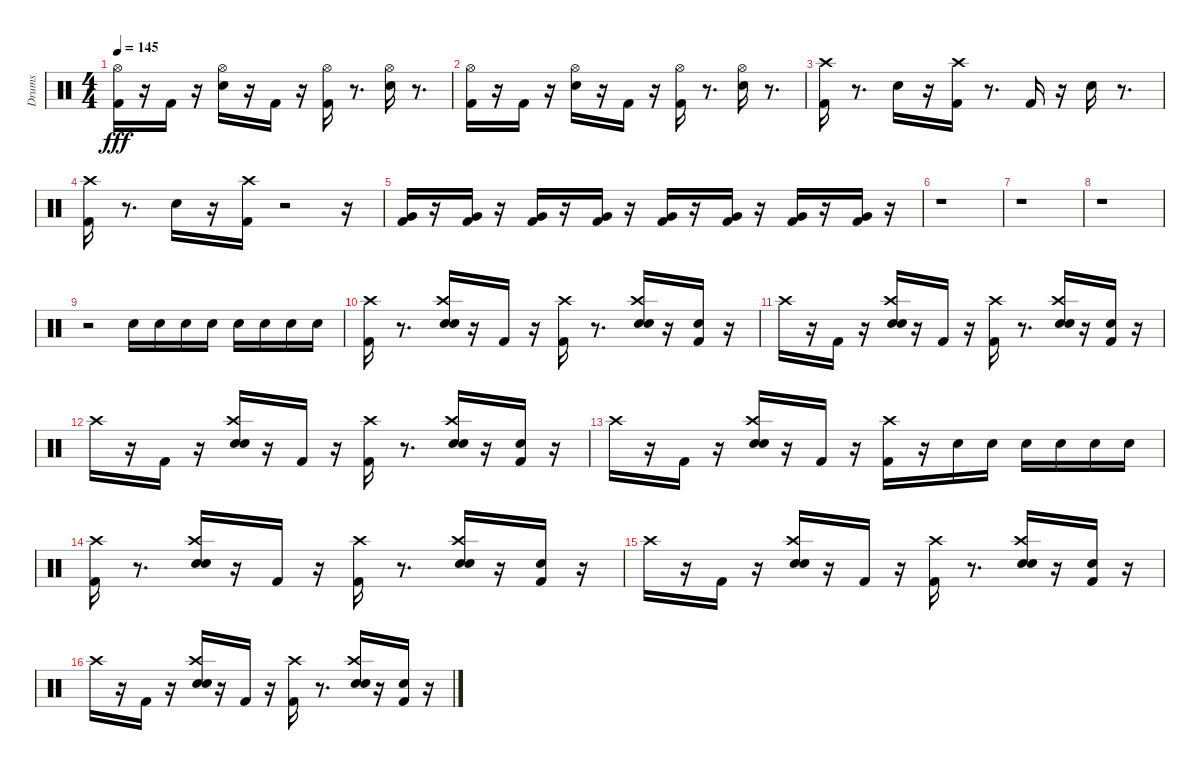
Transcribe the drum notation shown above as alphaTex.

\track ("Drums" "Drums") {instrument percussion}
\staff {score}
\articulation defaults
\ts (4 4)
\tempo 145
\clef neutral
\ks c
("Kick (hit) 2" "Hi-Hat (open)").16{dy fff} r.16 "Kick (hit) 2".16 r.16 ("Electric Snare (hit)" "Hi-Hat (open)").16 r.16 "Kick (hit) 2".16 r.16 ("Kick (hit) 2" "Hi-Hat (open)").16 r.8{d} ("Electric Snare (hit)" "Hi-Hat (open)").16 r.8{d} |
("Kick (hit) 2" "Hi-Hat (open)").16 r.16 "Kick (hit) 2".16 r.16 ("Electric Snare (hit)" "Hi-Hat (open)").16 r.16 "Kick (hit) 2".16 r.16 ("Kick (hit) 2" "Hi-Hat (open)").16 r.8{d} ("Hi-Hat (open)" "Electric Snare (hit)").16 r.8{d} |
("Kick (hit) 2" "Crash high (hit)").16 r.8{d} "Electric Snare (hit)".16 r.16 ("Crash high (hit)" "Kick (hit) 2").16 r.8{d} "Kick (hit) 2".16 r.16 "Electric Snare (hit)".16 r.8{d} |
("Crash high (hit)" "Kick (hit) 2").16 r.8{d} "Electric Snare (hit)".16 r.16 ("Kick (hit) 2" "Crash high (hit)").16 r.2 r.16 |
("Very Low Tom (hit)" "Kick (hit) 2").16 r.16 ("Very Low Tom (hit)" "Kick (hit) 2").16 r.16 ("Very Low Tom (hit)" "Kick (hit) 2").16 r.16 ("Very Low Tom (hit)" "Kick (hit) 2").16 r.16 ("Very Low Tom (hit)" "Kick (hit) 2").16 r.16 ("Very Low Tom (hit)" "Kick (hit) 2").16 r.16 ("Very Low Tom (hit)" "Kick (hit) 2").16 r.16 ("Very Low Tom (hit)" "Kick (hit) 2").16 r.16 |
r.1 |
r.1 |
r.1 |
r.2 "Electric Snare (hit)".16 "Electric Snare (hit)".16 "Electric Snare (hit)".16 "Electric Snare (hit)".16 "Electric Snare (hit)".16 "Electric Snare (hit)".16 "Electric Snare (hit)".16 "Electric Snare (hit)".16 |
("Kick (hit) 2" "Crash high (hit)").16 r.8{d} ("Crash high (hit)" "Hand Clap (hit)" "Electric Snare (hit)").16 r.16 "Kick (hit) 2".16 r.16 ("Crash high (hit)" "Kick (hit) 2").16 r.8{d} ("Crash high (hit)" "Hand Clap (hit)" "Electric Snare (hit)").16 r.16 ("Hand Clap (hit)" "Kick (hit) 2").16 r.16 |
"Crash high (hit)".16 r.16 "Kick (hit) 2".16 r.16 ("Crash high (hit)" "Hand Clap (hit)" "Electric Snare (hit)").16 r.16 "Kick (hit) 2".16 r.16 ("Crash high (hit)" "Kick (hit) 2").16 r.8{d} ("Crash high (hit)" "Hand Clap (hit)" "Electric Snare (hit)").16 r.16 ("Hand Clap (hit)" "Kick (hit) 2").16 r.16 |
"Crash high (hit)".16 r.16 "Kick (hit) 2".16 r.16 ("Crash high (hit)" "Hand Clap (hit)" "Electric Snare (hit)").16 r.16 "Kick (hit) 2".16 r.16 ("Crash high (hit)" "Kick (hit) 2").16 r.8{d} ("Crash high (hit)" "Hand Clap (hit)" "Electric Snare (hit)").16 r.16 ("Hand Clap (hit)" "Kick (hit) 2").16 r.16 |
"Crash high (hit)".16 r.16 "Kick (hit) 2".16 r.16 ("Crash high (hit)" "Electric Snare (hit)" "Hand Clap (hit)").16 r.16 "Kick (hit) 2".16 r.16 ("Crash high (hit)" "Kick (hit) 2").16 r.16 "Electric Snare (hit)".16 "Electric Snare (hit)".16 "Electric Snare (hit)".16 "Electric Snare (hit)".16 "Electric Snare (hit)".16 "Electric Snare (hit)".16 |
("Kick (hit) 2" "Crash high (hit)").16 r.8{d} ("Crash high (hit)" "Hand Clap (hit)" "Electric Snare (hit)").16 r.16 "Kick (hit) 2".16 r.16 ("Crash high (hit)" "Kick (hit) 2").16 r.8{d} ("Crash high (hit)" "Hand Clap (hit)" "Electric Snare (hit)").16 r.16 ("Hand Clap (hit)" "Kick (hit) 2").16 r.16 |
"Crash high (hit)".16 r.16 "Kick (hit) 2".16 r.16 ("Crash high (hit)" "Hand Clap (hit)" "Electric Snare (hit)").16 r.16 "Kick (hit) 2".16 r.16 ("Crash high (hit)" "Kick (hit) 2").16 r.8{d} ("Crash high (hit)" "Hand Clap (hit)" "Electric Snare (hit)").16 r.16 ("Hand Clap (hit)" "Kick (hit) 2").16 r.16 |
"Crash high (hit)".16 r.16 "Kick (hit) 2".16 r.16 ("Crash high (hit)" "Hand Clap (hit)" "Electric Snare (hit)").16 r.16 "Kick (hit) 2".16 r.16 ("Crash high (hit)" "Kick (hit) 2").16 r.8{d} ("Crash high (hit)" "Hand Clap (hit)" "Electric Snare (hit)").16 r.16 ("Hand Clap (hit)" "Kick (hit) 2").16 r.16
